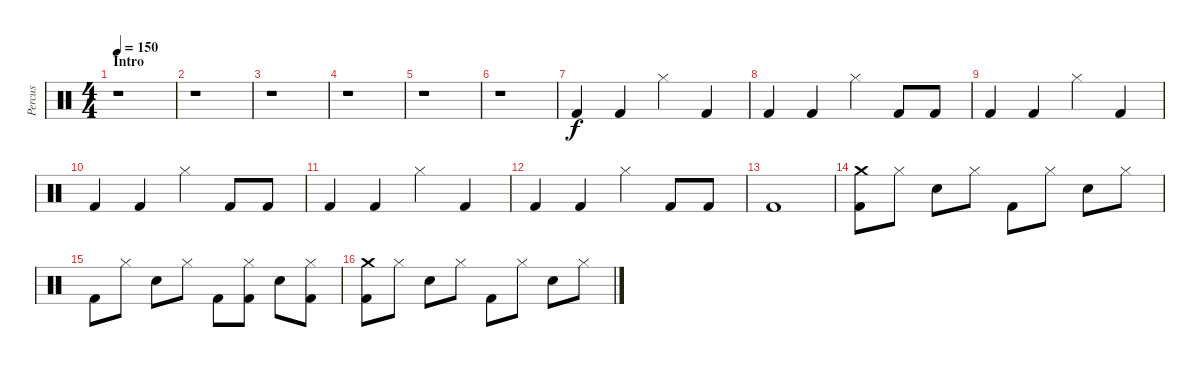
\track ("Percus" "Percus") {instrument percussion}
\staff {score}
\articulation defaults
\ts (4 4)
\section ("" "Intro")
\tempo 150
\clef neutral
\ks c
r.1{dy f} |
r.1 |
r.1 |
r.1 |
r.1 |
r.1 |
"Kick (hit) 2".4 "Kick (hit) 2".4 "Hi-Hat (closed)".4 "Kick (hit) 2".4 |
"Kick (hit) 2".4 "Kick (hit) 2".4 "Hi-Hat (closed)".4 "Kick (hit) 2".8 "Kick (hit) 2".8 |
"Kick (hit) 2".4 "Kick (hit) 2".4 "Hi-Hat (closed)".4 "Kick (hit) 2".4 |
"Kick (hit) 2".4 "Kick (hit) 2".4 "Hi-Hat (closed)".4 "Kick (hit) 2".8 "Kick (hit) 2".8 |
"Kick (hit) 2".4 "Kick (hit) 2".4 "Hi-Hat (closed)".4 "Kick (hit) 2".4 |
"Kick (hit) 2".4 "Kick (hit) 2".4 "Hi-Hat (closed)".4 "Kick (hit) 2".8 "Kick (hit) 2".8 |
"Kick (hit) 2".1 |
("Crash medium (hit)" "Kick (hit) 2").8 "Hi-Hat (closed)".8 "Snare (hit) 2".8 "Hi-Hat (closed)".8 "Kick (hit) 2".8 "Hi-Hat (closed)".8 "Snare (hit) 2".8 "Hi-Hat (closed)".8 |
"Kick (hit) 2".8 "Hi-Hat (closed)".8 "Snare (hit) 2".8 "Hi-Hat (closed)".8 "Kick (hit) 2".8 ("Hi-Hat (closed)" "Kick (hit) 2").8 "Snare (hit) 2".8 ("Hi-Hat (closed)" "Kick (hit) 2").8 |
("Crash medium (hit)" "Kick (hit) 2").8 "Hi-Hat (closed)".8 "Snare (hit) 2".8 "Hi-Hat (closed)".8 "Kick (hit) 2".8 "Hi-Hat (closed)".8 "Snare (hit) 2".8 "Hi-Hat (closed)".8
